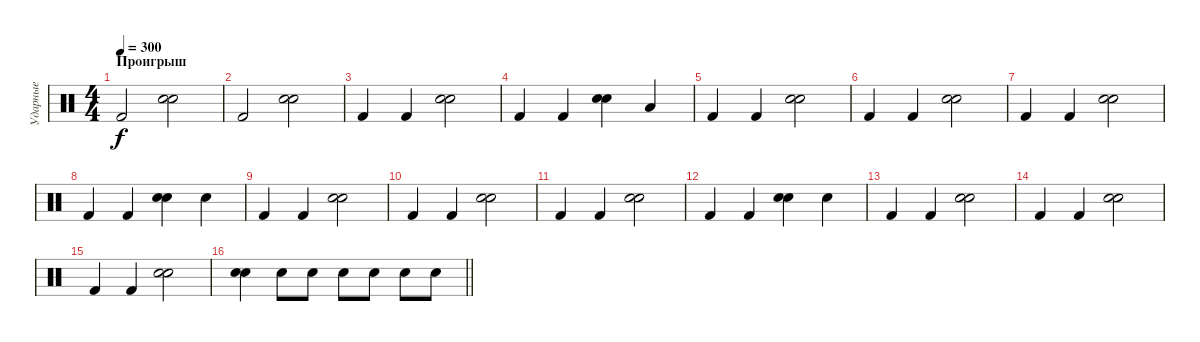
\track ("Ударные" "Ударные") {instrument percussion}
\staff {score}
\articulation defaults
\ts (4 4)
\section ("" "Проигрыш")
\tempo 300
\clef neutral
\ks c "Kick (hit) 2".2{dy f}
("Electric Snare (hit)" "Snare (hit) 2").2 |
"Kick (hit) 2".2 ("Electric Snare (hit)" "Snare (hit) 2").2 |
"Kick (hit) 2".4 "Kick (hit) 2".4 ("Electric Snare (hit)" "Snare (hit) 2").2 |
"Kick (hit) 2".4 "Kick (hit) 2".4 ("Electric Snare (hit)" "Snare (hit) 2").4 "Low Tom (hit)".4 |
"Kick (hit) 2".4 "Kick (hit) 2".4 ("Electric Snare (hit)" "Snare (hit) 2").2 |
"Kick (hit) 2".4 "Kick (hit) 2".4 ("Electric Snare (hit)" "Snare (hit) 2").2 |
"Kick (hit) 2".4 "Kick (hit) 2".4 ("Electric Snare (hit)" "Snare (hit) 2").2 |
"Kick (hit) 2".4 "Kick (hit) 2".4 ("Electric Snare (hit)" "Snare (hit) 2").4 "Electric Snare (hit)".4 |
"Kick (hit) 2".4 "Kick (hit) 2".4 ("Electric Snare (hit)" "Snare (hit) 2").2 |
"Kick (hit) 2".4 "Kick (hit) 2".4 ("Electric Snare (hit)" "Snare (hit) 2").2 |
"Kick (hit) 2".4 "Kick (hit) 2".4 ("Electric Snare (hit)" "Snare (hit) 2").2 |
"Kick (hit) 2".4 "Kick (hit) 2".4 ("Electric Snare (hit)" "Snare (hit) 2").4 "Electric Snare (hit)".4 |
"Kick (hit) 2".4 "Kick (hit) 2".4 ("Electric Snare (hit)" "Snare (hit) 2").2 |
"Kick (hit) 2".4 "Kick (hit) 2".4 ("Electric Snare (hit)" "Snare (hit) 2").2 |
"Kick (hit) 2".4 "Kick (hit) 2".4 ("Electric Snare (hit)" "Snare (hit) 2").2 |
\barLineRight lightlight
("Electric Snare (hit)" "Snare (hit) 2").4 "Electric Snare (hit)".8 "Electric Snare (hit)".8 "Electric Snare (hit)".8 "Electric Snare (hit)".8 "Electric Snare (hit)".8 "Electric Snare (hit)".8
